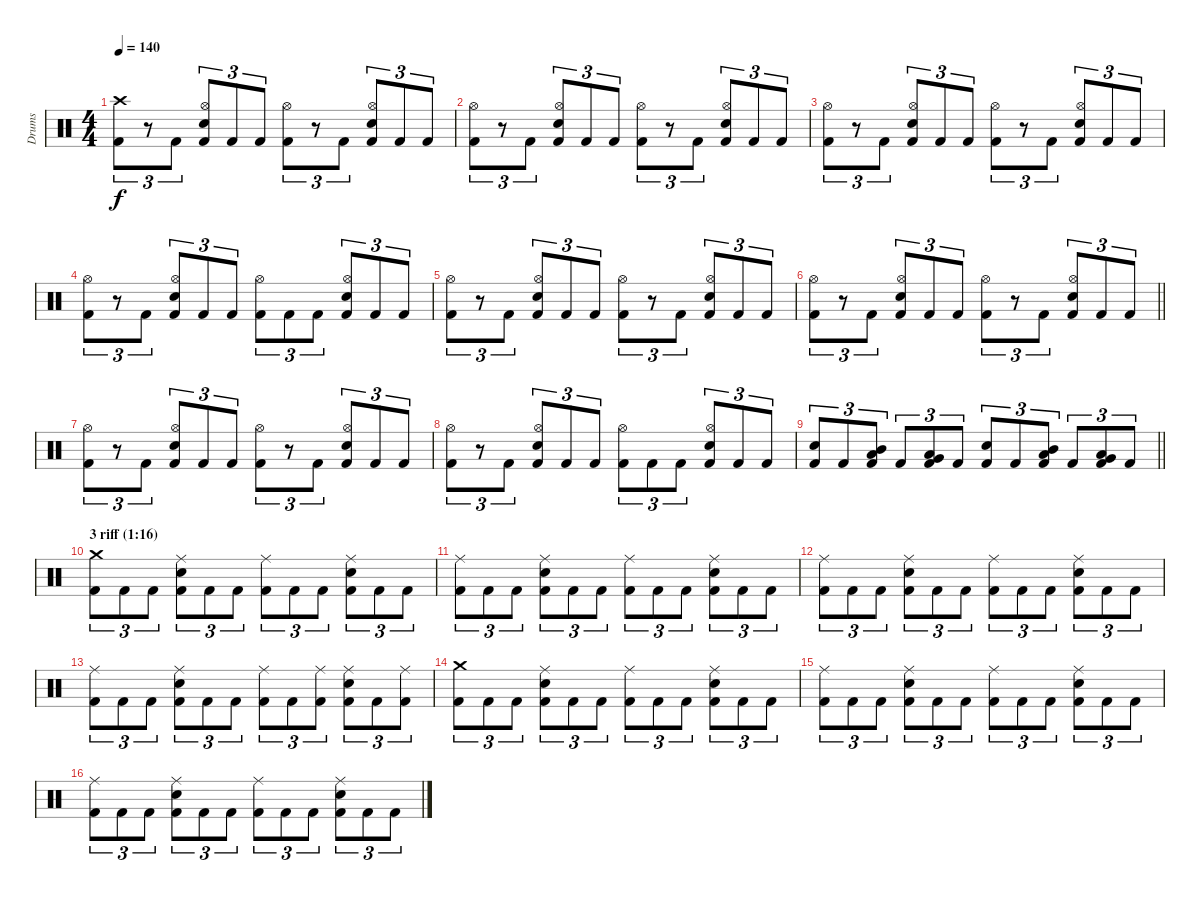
\track ("Drums" "Drums") {instrument percussion}
\staff {score}
\articulation defaults
\ts (4 4)
\section ("" "")
\tempo 140
\clef neutral
\ks c
("Crash high (hit)" "Kick (hit) 2").8{tu (3 2) dy f} r.8{tu (3 2)} "Kick (hit) 2".8{tu (3 2)} ("Hi-Hat (open)" "Snare (hit) 2" "Kick (hit) 2").8{tu (3 2)} "Kick (hit) 2".8{tu (3 2)} "Kick (hit) 2".8{tu (3 2)} ("Hi-Hat (open)" "Kick (hit) 2").8{tu (3 2)} r.8{tu (3 2)} "Kick (hit) 2".8{tu (3 2)} ("Hi-Hat (open)" "Snare (hit) 2" "Kick (hit) 2").8{tu (3 2)} "Kick (hit) 2".8{tu (3 2)} "Kick (hit) 2".8{tu (3 2)} |
("Hi-Hat (open)" "Kick (hit) 2").8{tu (3 2)} r.8{tu (3 2)} "Kick (hit) 2".8{tu (3 2)} ("Hi-Hat (open)" "Snare (hit) 2" "Kick (hit) 2").8{tu (3 2)} "Kick (hit) 2".8{tu (3 2)} "Kick (hit) 2".8{tu (3 2)} ("Hi-Hat (open)" "Kick (hit) 2").8{tu (3 2)} r.8{tu (3 2)} "Kick (hit) 2".8{tu (3 2)} ("Hi-Hat (open)" "Snare (hit) 2" "Kick (hit) 2").8{tu (3 2)} "Kick (hit) 2".8{tu (3 2)} "Kick (hit) 2".8{tu (3 2)} |
("Hi-Hat (open)" "Kick (hit) 2").8{tu (3 2)} r.8{tu (3 2)} "Kick (hit) 2".8{tu (3 2)} ("Hi-Hat (open)" "Snare (hit) 2" "Kick (hit) 2").8{tu (3 2)} "Kick (hit) 2".8{tu (3 2)} "Kick (hit) 2".8{tu (3 2)} ("Hi-Hat (open)" "Kick (hit) 2").8{tu (3 2)} r.8{tu (3 2)} "Kick (hit) 2".8{tu (3 2)} ("Hi-Hat (open)" "Snare (hit) 2" "Kick (hit) 2").8{tu (3 2)} "Kick (hit) 2".8{tu (3 2)} "Kick (hit) 2".8{tu (3 2)} |
("Hi-Hat (open)" "Kick (hit) 2").8{tu (3 2)} r.8{tu (3 2)} "Kick (hit) 2".8{tu (3 2)} ("Hi-Hat (open)" "Snare (hit) 2" "Kick (hit) 2").8{tu (3 2)} "Kick (hit) 2".8{tu (3 2)} "Kick (hit) 2".8{tu (3 2)} ("Hi-Hat (open)" "Kick (hit) 2").8{tu (3 2)} "Kick (hit) 2".8{tu (3 2)} "Kick (hit) 2".8{tu (3 2)} ("Hi-Hat (open)" "Snare (hit) 2" "Kick (hit) 2").8{tu (3 2)} "Kick (hit) 2".8{tu (3 2)} "Kick (hit) 2".8{tu (3 2)} |
("Hi-Hat (open)" "Kick (hit) 2").8{tu (3 2)} r.8{tu (3 2)} "Kick (hit) 2".8{tu (3 2)} ("Hi-Hat (open)" "Snare (hit) 2" "Kick (hit) 2").8{tu (3 2)} "Kick (hit) 2".8{tu (3 2)} "Kick (hit) 2".8{tu (3 2)} ("Hi-Hat (open)" "Kick (hit) 2").8{tu (3 2)} r.8{tu (3 2)} "Kick (hit) 2".8{tu (3 2)} ("Hi-Hat (open)" "Snare (hit) 2" "Kick (hit) 2").8{tu (3 2)} "Kick (hit) 2".8{tu (3 2)} "Kick (hit) 2".8{tu (3 2)} |
\barLineRight lightlight
("Hi-Hat (open)" "Kick (hit) 2").8{tu (3 2)} r.8{tu (3 2)} "Kick (hit) 2".8{tu (3 2)} ("Hi-Hat (open)" "Snare (hit) 2" "Kick (hit) 2").8{tu (3 2)} "Kick (hit) 2".8{tu (3 2)} "Kick (hit) 2".8{tu (3 2)} ("Hi-Hat (open)" "Kick (hit) 2").8{tu (3 2)} r.8{tu (3 2)} "Kick (hit) 2".8{tu (3 2)} ("Hi-Hat (open)" "Snare (hit) 2" "Kick (hit) 2").8{tu (3 2)} "Kick (hit) 2".8{tu (3 2)} "Kick (hit) 2".8{tu (3 2)} |
("Hi-Hat (open)" "Kick (hit) 2").8{tu (3 2)} r.8{tu (3 2)} "Kick (hit) 2".8{tu (3 2)} ("Hi-Hat (open)" "Snare (hit) 2" "Kick (hit) 2").8{tu (3 2)} "Kick (hit) 2".8{tu (3 2)} "Kick (hit) 2".8{tu (3 2)} ("Hi-Hat (open)" "Kick (hit) 2").8{tu (3 2)} r.8{tu (3 2)} "Kick (hit) 2".8{tu (3 2)} ("Hi-Hat (open)" "Snare (hit) 2" "Kick (hit) 2").8{tu (3 2)} "Kick (hit) 2".8{tu (3 2)} "Kick (hit) 2".8{tu (3 2)} |
("Hi-Hat (open)" "Kick (hit) 2").8{tu (3 2)} r.8{tu (3 2)} "Kick (hit) 2".8{tu (3 2)} ("Hi-Hat (open)" "Snare (hit) 2" "Kick (hit) 2").8{tu (3 2)} "Kick (hit) 2".8{tu (3 2)} "Kick (hit) 2".8{tu (3 2)} ("Hi-Hat (open)" "Kick (hit) 2").8{tu (3 2)} "Kick (hit) 2".8{tu (3 2)} "Kick (hit) 2".8{tu (3 2)} ("Hi-Hat (open)" "Snare (hit) 2" "Kick (hit) 2").8{tu (3 2)} "Kick (hit) 2".8{tu (3 2)} "Kick (hit) 2".8{tu (3 2)} |
\barLineRight lightlight
("Snare (hit) 2" "Kick (hit) 2").8{tu (3 2)} "Kick (hit) 2".8{tu (3 2)} ("Mid Tom (hit)" "Low Tom (hit)" "Kick (hit) 2").8{tu (3 2)} "Kick (hit) 2".8{tu (3 2)} ("Low Tom (hit)" "Very Low Tom (hit)" "Kick (hit) 2").8{tu (3 2)} "Kick (hit) 2".8{tu (3 2)} ("Snare (hit) 2" "Kick (hit) 2").8{tu (3 2)} "Kick (hit) 2".8{tu (3 2)} ("Mid Tom (hit)" "Low Tom (hit)" "Kick (hit) 2").8{tu (3 2)} "Kick (hit) 2".8{tu (3 2)} ("Low Tom (hit)" "Very Low Tom (hit)" "Kick (hit) 2").8{tu (3 2)} "Kick (hit) 2".8{tu (3 2)} |
\section ("" "3 riff (1:16)")
("Crash medium (hit)" "Kick (hit) 2").8{tu (3 2)} "Kick (hit) 2".8{tu (3 2)} "Kick (hit) 2".8{tu (3 2)} ("Ride (middle)" "Snare (hit) 2" "Kick (hit) 2").8{tu (3 2)} "Kick (hit) 2".8{tu (3 2)} "Kick (hit) 2".8{tu (3 2)} ("Ride (middle)" "Kick (hit) 2").8{tu (3 2)} "Kick (hit) 2".8{tu (3 2)} "Kick (hit) 2".8{tu (3 2)} ("Ride (middle)" "Snare (hit) 2" "Kick (hit) 2").8{tu (3 2)} "Kick (hit) 2".8{tu (3 2)} "Kick (hit) 2".8{tu (3 2)} |
("Ride (middle)" "Kick (hit) 2").8{tu (3 2)} "Kick (hit) 2".8{tu (3 2)} "Kick (hit) 2".8{tu (3 2)} ("Ride (middle)" "Snare (hit) 2" "Kick (hit) 2").8{tu (3 2)} "Kick (hit) 2".8{tu (3 2)} "Kick (hit) 2".8{tu (3 2)} ("Ride (middle)" "Kick (hit) 2").8{tu (3 2)} "Kick (hit) 2".8{tu (3 2)} "Kick (hit) 2".8{tu (3 2)} ("Ride (middle)" "Snare (hit) 2" "Kick (hit) 2").8{tu (3 2)} "Kick (hit) 2".8{tu (3 2)} "Kick (hit) 2".8{tu (3 2)} |
("Ride (middle)" "Kick (hit) 2").8{tu (3 2)} "Kick (hit) 2".8{tu (3 2)} "Kick (hit) 2".8{tu (3 2)} ("Ride (middle)" "Snare (hit) 2" "Kick (hit) 2").8{tu (3 2)} "Kick (hit) 2".8{tu (3 2)} "Kick (hit) 2".8{tu (3 2)} ("Ride (middle)" "Kick (hit) 2").8{tu (3 2)} "Kick (hit) 2".8{tu (3 2)} "Kick (hit) 2".8{tu (3 2)} ("Ride (middle)" "Snare (hit) 2" "Kick (hit) 2").8{tu (3 2)} "Kick (hit) 2".8{tu (3 2)} "Kick (hit) 2".8{tu (3 2)} |
("Ride (middle)" "Kick (hit) 2").8{tu (3 2)} "Kick (hit) 2".8{tu (3 2)} "Kick (hit) 2".8{tu (3 2)} ("Ride (middle)" "Snare (hit) 2" "Kick (hit) 2").8{tu (3 2)} "Kick (hit) 2".8{tu (3 2)} "Kick (hit) 2".8{tu (3 2)} ("Ride (middle)" "Kick (hit) 2").8{tu (3 2)} "Kick (hit) 2".8{tu (3 2)} ("Ride (middle)" "Kick (hit) 2").8{tu (3 2)} ("Ride (middle)" "Snare (hit) 2" "Kick (hit) 2").8{tu (3 2)} "Kick (hit) 2".8{tu (3 2)} ("Ride (middle)" "Kick (hit) 2").8{tu (3 2)} |
("Crash medium (hit)" "Kick (hit) 2").8{tu (3 2)} "Kick (hit) 2".8{tu (3 2)} "Kick (hit) 2".8{tu (3 2)} ("Ride (middle)" "Snare (hit) 2" "Kick (hit) 2").8{tu (3 2)} "Kick (hit) 2".8{tu (3 2)} "Kick (hit) 2".8{tu (3 2)} ("Ride (middle)" "Kick (hit) 2").8{tu (3 2)} "Kick (hit) 2".8{tu (3 2)} "Kick (hit) 2".8{tu (3 2)} ("Ride (middle)" "Snare (hit) 2" "Kick (hit) 2").8{tu (3 2)} "Kick (hit) 2".8{tu (3 2)} "Kick (hit) 2".8{tu (3 2)} |
("Ride (middle)" "Kick (hit) 2").8{tu (3 2)} "Kick (hit) 2".8{tu (3 2)} "Kick (hit) 2".8{tu (3 2)} ("Ride (middle)" "Snare (hit) 2" "Kick (hit) 2").8{tu (3 2)} "Kick (hit) 2".8{tu (3 2)} "Kick (hit) 2".8{tu (3 2)} ("Ride (middle)" "Kick (hit) 2").8{tu (3 2)} "Kick (hit) 2".8{tu (3 2)} "Kick (hit) 2".8{tu (3 2)} ("Ride (middle)" "Snare (hit) 2" "Kick (hit) 2").8{tu (3 2)} "Kick (hit) 2".8{tu (3 2)} "Kick (hit) 2".8{tu (3 2)} |
("Ride (middle)" "Kick (hit) 2").8{tu (3 2)} "Kick (hit) 2".8{tu (3 2)} "Kick (hit) 2".8{tu (3 2)} ("Ride (middle)" "Snare (hit) 2" "Kick (hit) 2").8{tu (3 2)} "Kick (hit) 2".8{tu (3 2)} "Kick (hit) 2".8{tu (3 2)} ("Ride (middle)" "Kick (hit) 2").8{tu (3 2)} "Kick (hit) 2".8{tu (3 2)} "Kick (hit) 2".8{tu (3 2)} ("Ride (middle)" "Snare (hit) 2" "Kick (hit) 2").8{tu (3 2)} "Kick (hit) 2".8{tu (3 2)} "Kick (hit) 2".8{tu (3 2)}
